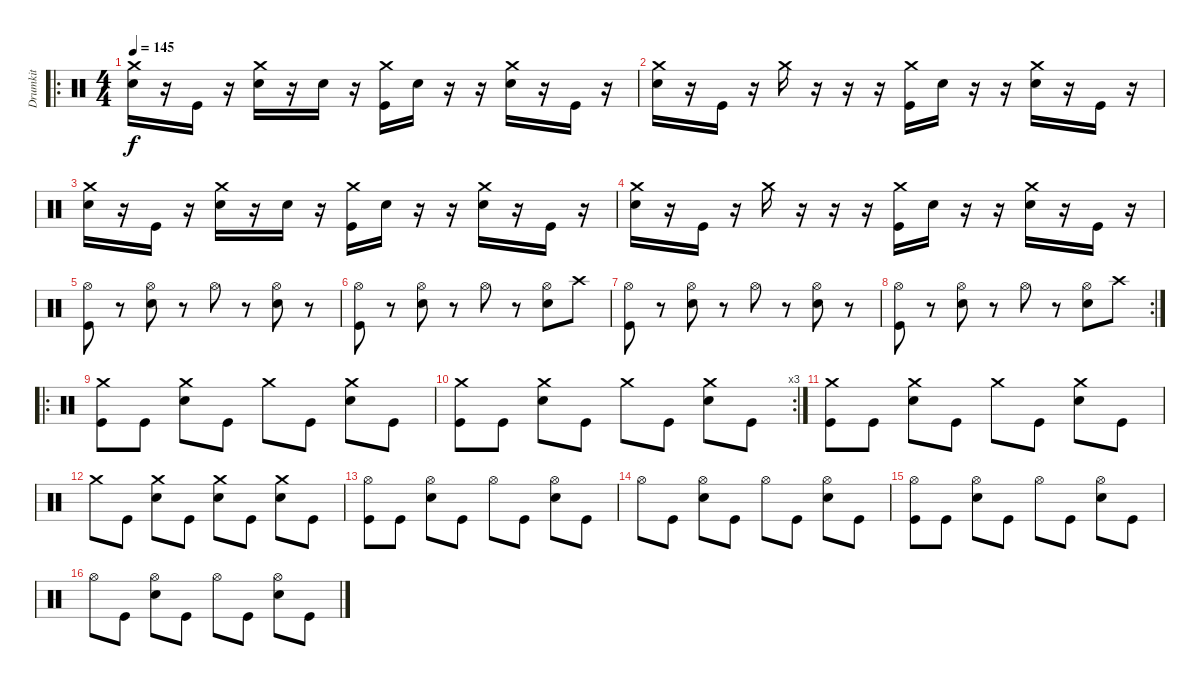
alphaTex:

\track ("Drumkit" "Drumkit") {instrument percussion}
\staff {score}
\articulation defaults
\ro
\ts (4 4)
\tempo 145
\clef neutral
\ks c
("Crash medium (hit)" "Snare (hit) 2").16{dy f} r.16 "Kick (hit)".16 r.16 ("Crash medium (hit)" "Snare (hit) 2").16 r.16 "Snare (hit) 2".16 r.16 ("Crash medium (hit)" "Kick (hit)").16 "Snare (hit) 2".16 r.16 r.16 ("Crash medium (hit)" "Snare (hit) 2").16 r.16 "Kick (hit)".16 r.16 |
("Crash medium (hit)" "Snare (hit) 2").16 r.16 "Kick (hit)".16 r.16 "Crash medium (hit)".16 r.16 r.16 r.16 ("Crash medium (hit)" "Kick (hit)").16 "Snare (hit) 2".16 r.16 r.16 ("Crash medium (hit)" "Snare (hit) 2").16 r.16 "Kick (hit)".16 r.16 |
("Crash medium (hit)" "Snare (hit) 2").16 r.16 "Kick (hit)".16 r.16 ("Crash medium (hit)" "Snare (hit) 2").16 r.16 "Snare (hit) 2".16 r.16 ("Crash medium (hit)" "Kick (hit)").16 "Snare (hit) 2".16 r.16 r.16 ("Crash medium (hit)" "Snare (hit) 2").16 r.16 "Kick (hit)".16 r.16 |
("Crash medium (hit)" "Snare (hit) 2").16 r.16 "Kick (hit)".16 r.16 "Crash medium (hit)".16 r.16 r.16 r.16 ("Crash medium (hit)" "Kick (hit)").16 "Snare (hit) 2".16 r.16 r.16 ("Crash medium (hit)" "Snare (hit) 2").16 r.16 "Kick (hit)".16 r.16 |
("Kick (hit)" "Hi-Hat (open)").8 r.8 ("Hi-Hat (open)" "Snare (hit) 2").8 r.8 "Hi-Hat (open)".8 r.8 ("Hi-Hat (open)" "Snare (hit) 2").8 r.8 |
("Kick (hit)" "Hi-Hat (open)").8 r.8 ("Hi-Hat (open)" "Snare (hit) 2").8 r.8 "Hi-Hat (open)".8 r.8 ("Hi-Hat (open)" "Snare (hit) 2").8 "Crash high (hit)".8 |
("Kick (hit)" "Hi-Hat (open)").8 r.8 ("Hi-Hat (open)" "Snare (hit) 2").8 r.8 "Hi-Hat (open)".8 r.8 ("Hi-Hat (open)" "Snare (hit) 2").8 r.8 |
\rc 2
("Kick (hit)" "Hi-Hat (open)").8 r.8 ("Hi-Hat (open)" "Snare (hit) 2").8 r.8 "Hi-Hat (open)".8 r.8 ("Hi-Hat (open)" "Snare (hit) 2").8 "Crash high (hit)".8 |
\ro
("Kick (hit)" "Crash medium (hit)").8 "Kick (hit)".8 ("Snare (hit) 2" "Crash medium (hit)").8 "Kick (hit)".8 "Crash medium (hit)".8 "Kick (hit)".8 ("Snare (hit) 2" "Crash medium (hit)").8 "Kick (hit)".8 |
\rc 3
("Kick (hit)" "Crash medium (hit)").8 "Kick (hit)".8 ("Snare (hit) 2" "Crash medium (hit)").8 "Kick (hit)".8 "Crash medium (hit)".8 "Kick (hit)".8 ("Snare (hit) 2" "Crash medium (hit)").8 "Kick (hit)".8 |
("Kick (hit)" "Crash medium (hit)").8 "Kick (hit)".8 ("Snare (hit) 2" "Crash medium (hit)").8 "Kick (hit)".8 "Crash medium (hit)".8 "Kick (hit)".8 ("Snare (hit) 2" "Crash medium (hit)").8 "Kick (hit)".8 |
"Crash medium (hit)".8 "Kick (hit)".8 ("Snare (hit) 2" "Crash medium (hit)").8 "Kick (hit)".8 ("Crash medium (hit)" "Snare (hit) 2").8 "Kick (hit)".8 ("Snare (hit) 2" "Crash medium (hit)").8 "Kick (hit)".8 |
("Kick (hit)" "Hi-Hat (open)").8 "Kick (hit)".8 ("Snare (hit) 2" "Hi-Hat (open)").8 "Kick (hit)".8 "Hi-Hat (open)".8 "Kick (hit)".8 ("Snare (hit) 2" "Hi-Hat (open)").8 "Kick (hit)".8 |
"Hi-Hat (open)".8 "Kick (hit)".8 ("Snare (hit) 2" "Hi-Hat (open)").8 "Kick (hit)".8 "Hi-Hat (open)".8 "Kick (hit)".8 ("Snare (hit) 2" "Hi-Hat (open)").8 "Kick (hit)".8 |
("Kick (hit)" "Hi-Hat (open)").8 "Kick (hit)".8 ("Snare (hit) 2" "Hi-Hat (open)").8 "Kick (hit)".8 "Hi-Hat (open)".8 "Kick (hit)".8 ("Snare (hit) 2" "Hi-Hat (open)").8 "Kick (hit)".8 |
"Hi-Hat (open)".8 "Kick (hit)".8 ("Snare (hit) 2" "Hi-Hat (open)").8 "Kick (hit)".8 "Hi-Hat (open)".8 "Kick (hit)".8 ("Snare (hit) 2" "Hi-Hat (open)").8 "Kick (hit)".8
